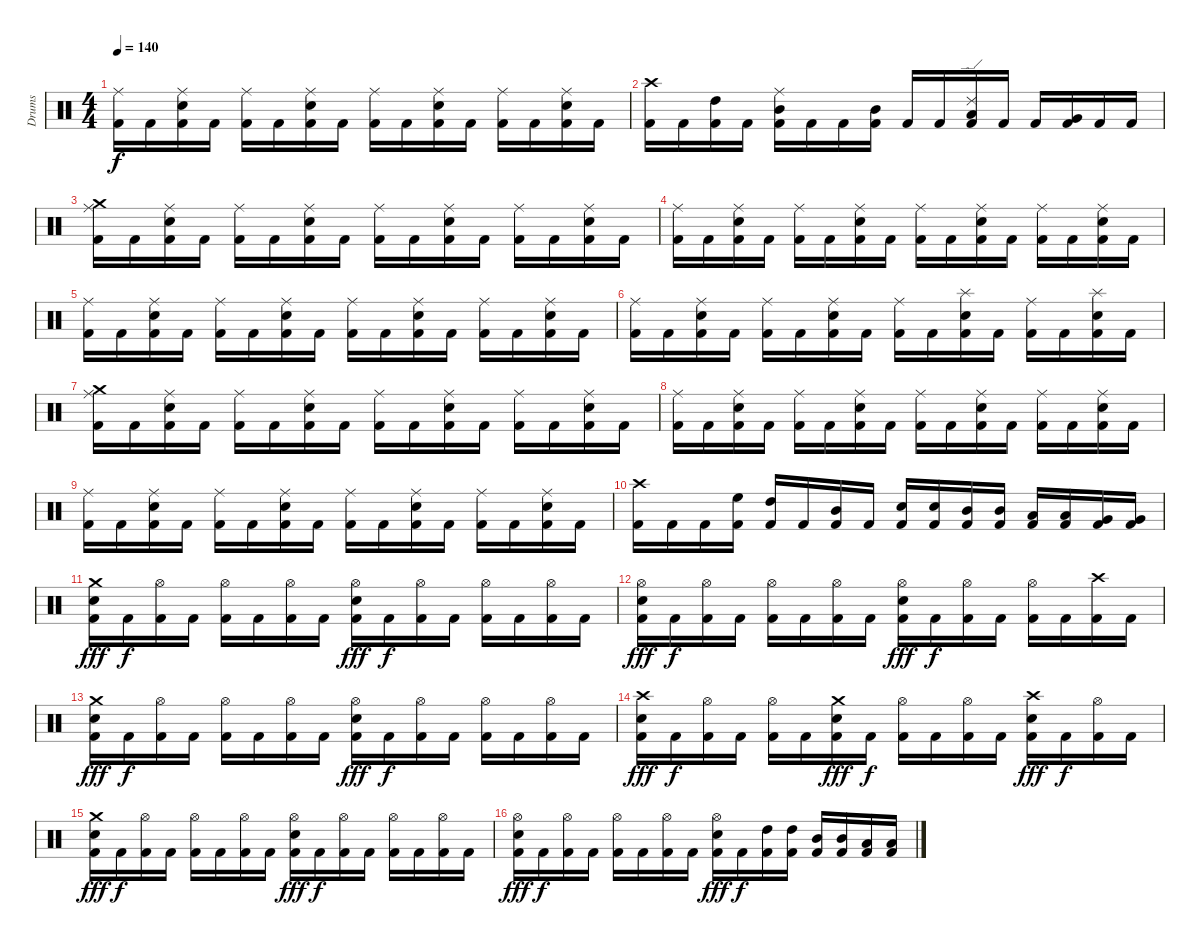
\track ("Drums" "Drums") {instrument percussion}
\staff {score}
\articulation defaults
\ts (4 4)
\tempo 140
\clef neutral
\ks c
("Ride (middle)" "Kick (hit) 2").16{dy f} "Kick (hit) 2".16 ("Ride (middle)" "Electric Snare (hit)" "Kick (hit) 2").16 "Kick (hit) 2".16 ("Ride (middle)" "Kick (hit) 2").16 "Kick (hit) 2".16 ("Ride (middle)" "Electric Snare (hit)" "Kick (hit) 2").16 "Kick (hit) 2".16 ("Ride (middle)" "Kick (hit) 2").16 "Kick (hit) 2".16 ("Ride (middle)" "Electric Snare (hit)" "Kick (hit) 2").16 "Kick (hit) 2".16 ("Ride (middle)" "Kick (hit) 2").16 "Kick (hit) 2".16 ("Ride (middle)" "Electric Snare (hit)" "Kick (hit) 2").16 "Kick (hit) 2".16 |
("Crash high (hit)" "Kick (hit) 2").16 "Kick (hit) 2".16 ("High Tom (hit)" "Kick (hit) 2").16 "Kick (hit) 2".16 ("Ride (middle)" "Mid Tom (hit)" "Kick (hit) 2").16 "Kick (hit) 2".16 "Kick (hit) 2".16 ("Mid Tom (hit)" "Kick (hit) 2").16 "Kick (hit) 2".16 "Kick (hit) 2".16 ("Ride (edge) 2" "Low Tom (hit)" "Kick (hit) 2").16 "Kick (hit) 2".16 "Kick (hit) 2".16 ("Very Low Tom (hit)" "Kick (hit) 2").16 "Kick (hit) 2".16 "Kick (hit) 2".16 |
("Crash medium (hit)" "Ride (middle)" "Kick (hit) 2").16 "Kick (hit) 2".16 ("Ride (middle)" "Electric Snare (hit)" "Kick (hit) 2").16 "Kick (hit) 2".16 ("Ride (middle)" "Kick (hit) 2").16 "Kick (hit) 2".16 ("Ride (middle)" "Electric Snare (hit)" "Kick (hit) 2").16 "Kick (hit) 2".16 ("Ride (middle)" "Kick (hit) 2").16 "Kick (hit) 2".16 ("Ride (middle)" "Electric Snare (hit)" "Kick (hit) 2").16 "Kick (hit) 2".16 ("Ride (middle)" "Kick (hit) 2").16 "Kick (hit) 2".16 ("Ride (middle)" "Electric Snare (hit)" "Kick (hit) 2").16 "Kick (hit) 2".16 |
("Ride (middle)" "Kick (hit) 2").16 "Kick (hit) 2".16 ("Ride (middle)" "Electric Snare (hit)" "Kick (hit) 2").16 "Kick (hit) 2".16 ("Ride (middle)" "Kick (hit) 2").16 "Kick (hit) 2".16 ("Ride (middle)" "Electric Snare (hit)" "Kick (hit) 2").16 "Kick (hit) 2".16 ("Ride (middle)" "Kick (hit) 2").16 "Kick (hit) 2".16 ("Ride (middle)" "Electric Snare (hit)" "Kick (hit) 2").16 "Kick (hit) 2".16 ("Ride (middle)" "Kick (hit) 2").16 "Kick (hit) 2".16 ("Ride (middle)" "Electric Snare (hit)" "Kick (hit) 2").16 "Kick (hit) 2".16 |
("Ride (middle)" "Kick (hit) 2").16 "Kick (hit) 2".16 ("Ride (middle)" "Electric Snare (hit)" "Kick (hit) 2").16 "Kick (hit) 2".16 ("Ride (middle)" "Kick (hit) 2").16 "Kick (hit) 2".16 ("Ride (middle)" "Electric Snare (hit)" "Kick (hit) 2").16 "Kick (hit) 2".16 ("Ride (middle)" "Kick (hit) 2").16 "Kick (hit) 2".16 ("Ride (middle)" "Electric Snare (hit)" "Kick (hit) 2").16 "Kick (hit) 2".16 ("Ride (middle)" "Kick (hit) 2").16 "Kick (hit) 2".16 ("Ride (middle)" "Electric Snare (hit)" "Kick (hit) 2").16 "Kick (hit) 2".16 |
("Ride (middle)" "Kick (hit) 2").16 "Kick (hit) 2".16 ("Ride (middle)" "Electric Snare (hit)" "Kick (hit) 2").16 "Kick (hit) 2".16 ("Ride (middle)" "Kick (hit) 2").16 "Kick (hit) 2".16 ("Ride (middle)" "Electric Snare (hit)" "Kick (hit) 2").16 "Kick (hit) 2".16 ("Ride (middle)" "Kick (hit) 2").16 "Kick (hit) 2".16 ("Splash (hit)" "Electric Snare (hit)" "Kick (hit) 2").16 "Kick (hit) 2".16 ("Ride (middle)" "Kick (hit) 2").16 "Kick (hit) 2".16 ("Splash (hit)" "Electric Snare (hit)" "Kick (hit) 2").16 "Kick (hit) 2".16 |
("Crash medium (hit)" "Ride (middle)" "Kick (hit) 2").16 "Kick (hit) 2".16 ("Ride (middle)" "Electric Snare (hit)" "Kick (hit) 2").16 "Kick (hit) 2".16 ("Ride (middle)" "Kick (hit) 2").16 "Kick (hit) 2".16 ("Ride (middle)" "Electric Snare (hit)" "Kick (hit) 2").16 "Kick (hit) 2".16 ("Ride (middle)" "Kick (hit) 2").16 "Kick (hit) 2".16 ("Ride (middle)" "Electric Snare (hit)" "Kick (hit) 2").16 "Kick (hit) 2".16 ("Ride (middle)" "Kick (hit) 2").16 "Kick (hit) 2".16 ("Ride (middle)" "Electric Snare (hit)" "Kick (hit) 2").16 "Kick (hit) 2".16 |
("Ride (middle)" "Kick (hit) 2").16 "Kick (hit) 2".16 ("Ride (middle)" "Electric Snare (hit)" "Kick (hit) 2").16 "Kick (hit) 2".16 ("Ride (middle)" "Kick (hit) 2").16 "Kick (hit) 2".16 ("Ride (middle)" "Electric Snare (hit)" "Kick (hit) 2").16 "Kick (hit) 2".16 ("Ride (middle)" "Kick (hit) 2").16 "Kick (hit) 2".16 ("Ride (middle)" "Electric Snare (hit)" "Kick (hit) 2").16 "Kick (hit) 2".16 ("Ride (middle)" "Kick (hit) 2").16 "Kick (hit) 2".16 ("Ride (middle)" "Electric Snare (hit)" "Kick (hit) 2").16 "Kick (hit) 2".16 |
("Ride (middle)" "Kick (hit) 2").16 "Kick (hit) 2".16 ("Ride (middle)" "Electric Snare (hit)" "Kick (hit) 2").16 "Kick (hit) 2".16 ("Ride (middle)" "Kick (hit) 2").16 "Kick (hit) 2".16 ("Ride (middle)" "Electric Snare (hit)" "Kick (hit) 2").16 "Kick (hit) 2".16 ("Ride (middle)" "Kick (hit) 2").16 "Kick (hit) 2".16 ("Ride (middle)" "Electric Snare (hit)" "Kick (hit) 2").16 "Kick (hit) 2".16 ("Ride (middle)" "Kick (hit) 2").16 "Kick (hit) 2".16 ("Ride (middle)" "Electric Snare (hit)" "Kick (hit) 2").16 "Kick (hit) 2".16 |
("Crash high (hit)" "Kick (hit) 2").16 "Kick (hit) 2".16 "Kick (hit) 2".16 ("High Floor Tom (hit)" "Kick (hit) 2").16 ("High Tom (hit)" "Kick (hit) 2").16 "Kick (hit) 2".16 ("Mid Tom (hit)" "Kick (hit) 2").16 "Kick (hit) 2".16 ("Electric Snare (hit)" "Kick (hit) 2").16 ("Electric Snare (hit)" "Kick (hit) 2").16 ("Mid Tom (hit)" "Kick (hit) 2").16 ("Mid Tom (hit)" "Kick (hit) 2").16 ("Low Tom (hit)" "Kick (hit) 2").16 ("Low Tom (hit)" "Kick (hit) 2").16 ("Very Low Tom (hit)" "Kick (hit) 2").16 ("Very Low Tom (hit)" "Kick (hit) 2").16 |
("Crash medium (hit)" "Electric Snare (hit)" "Kick (hit) 2").16{dy fff} "Kick (hit) 2".16{dy f} ("Hi-Hat (open)" "Kick (hit) 2").16 "Kick (hit) 2".16 ("Hi-Hat (open)" "Kick (hit) 2").16 "Kick (hit) 2".16 ("Hi-Hat (open)" "Kick (hit) 2").16 "Kick (hit) 2".16 ("Hi-Hat (open)" "Electric Snare (hit)" "Kick (hit) 2").16{dy fff} "Kick (hit) 2".16{dy f} ("Hi-Hat (open)" "Kick (hit) 2").16 "Kick (hit) 2".16 ("Hi-Hat (open)" "Kick (hit) 2").16 "Kick (hit) 2".16 ("Hi-Hat (open)" "Kick (hit) 2").16 "Kick (hit) 2".16 |
("Hi-Hat (open)" "Electric Snare (hit)" "Kick (hit) 2").16{dy fff} "Kick (hit) 2".16{dy f} ("Hi-Hat (open)" "Kick (hit) 2").16 "Kick (hit) 2".16 ("Hi-Hat (open)" "Kick (hit) 2").16 "Kick (hit) 2".16 ("Hi-Hat (open)" "Kick (hit) 2").16 "Kick (hit) 2".16 ("Hi-Hat (open)" "Electric Snare (hit)" "Kick (hit) 2").16{dy fff} "Kick (hit) 2".16{dy f} ("Hi-Hat (open)" "Kick (hit) 2").16 "Kick (hit) 2".16 ("Hi-Hat (open)" "Kick (hit) 2").16 "Kick (hit) 2".16 ("Crash high (hit)" "Kick (hit) 2").16 "Kick (hit) 2".16 |
("Crash medium (hit)" "Electric Snare (hit)" "Kick (hit) 2").16{dy fff} "Kick (hit) 2".16{dy f} ("Hi-Hat (open)" "Kick (hit) 2").16 "Kick (hit) 2".16 ("Hi-Hat (open)" "Kick (hit) 2").16 "Kick (hit) 2".16 ("Hi-Hat (open)" "Kick (hit) 2").16 "Kick (hit) 2".16 ("Hi-Hat (open)" "Electric Snare (hit)" "Kick (hit) 2").16{dy fff} "Kick (hit) 2".16{dy f} ("Hi-Hat (open)" "Kick (hit) 2").16 "Kick (hit) 2".16 ("Hi-Hat (open)" "Kick (hit) 2").16 "Kick (hit) 2".16 ("Hi-Hat (open)" "Kick (hit) 2").16 "Kick (hit) 2".16 |
("Crash high (hit)" "Electric Snare (hit)" "Kick (hit) 2").16{dy fff} "Kick (hit) 2".16{dy f} ("Hi-Hat (open)" "Kick (hit) 2").16 "Kick (hit) 2".16 ("Hi-Hat (open)" "Kick (hit) 2").16 "Kick (hit) 2".16 ("Crash medium (hit)" "Electric Snare (hit)" "Kick (hit) 2").16{dy fff} "Kick (hit) 2".16{dy f} ("Hi-Hat (open)" "Kick (hit) 2").16 "Kick (hit) 2".16 ("Hi-Hat (open)" "Kick (hit) 2").16 "Kick (hit) 2".16 ("Crash high (hit)" "Electric Snare (hit)" "Kick (hit) 2").16{dy fff} "Kick (hit) 2".16{dy f} ("Hi-Hat (open)" "Kick (hit) 2").16 "Kick (hit) 2".16 |
("Crash medium (hit)" "Electric Snare (hit)" "Kick (hit) 2").16{dy fff} "Kick (hit) 2".16{dy f} ("Hi-Hat (open)" "Kick (hit) 2").16 "Kick (hit) 2".16 ("Hi-Hat (open)" "Kick (hit) 2").16 "Kick (hit) 2".16 ("Hi-Hat (open)" "Kick (hit) 2").16 "Kick (hit) 2".16 ("Hi-Hat (open)" "Electric Snare (hit)" "Kick (hit) 2").16{dy fff} "Kick (hit) 2".16{dy f} ("Hi-Hat (open)" "Kick (hit) 2").16 "Kick (hit) 2".16 ("Hi-Hat (open)" "Kick (hit) 2").16 "Kick (hit) 2".16 ("Hi-Hat (open)" "Kick (hit) 2").16 "Kick (hit) 2".16 |
("Hi-Hat (open)" "Electric Snare (hit)" "Kick (hit) 2").16{dy fff} "Kick (hit) 2".16{dy f} ("Hi-Hat (open)" "Kick (hit) 2").16 "Kick (hit) 2".16 ("Hi-Hat (open)" "Kick (hit) 2").16 "Kick (hit) 2".16 ("Hi-Hat (open)" "Kick (hit) 2").16 "Kick (hit) 2".16 ("Hi-Hat (open)" "Electric Snare (hit)" "Kick (hit) 2").16{dy fff} "Kick (hit) 2".16{dy f} ("High Tom (hit)" "Kick (hit) 2").16 ("High Tom (hit)" "Kick (hit) 2").16 ("Mid Tom (hit)" "Kick (hit) 2").16 ("Mid Tom (hit)" "Kick (hit) 2").16 ("Low Tom (hit)" "Kick (hit) 2").16 ("Low Tom (hit)" "Kick (hit) 2").16
